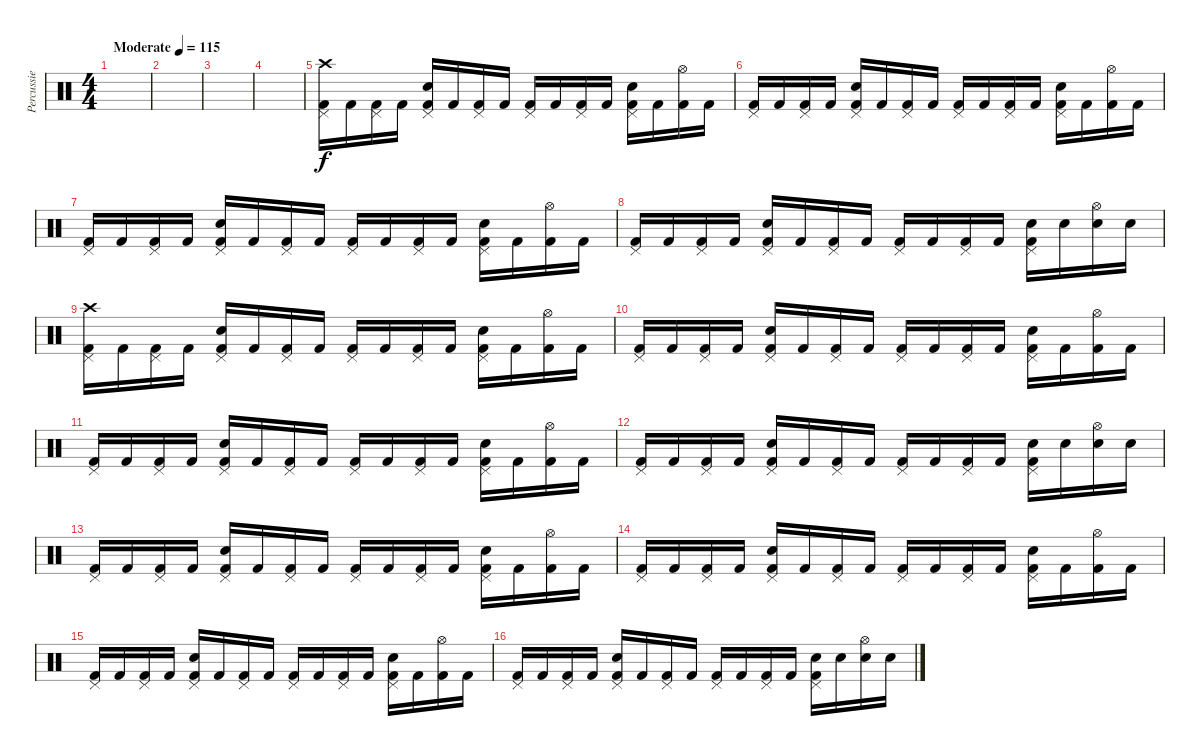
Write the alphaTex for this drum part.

\track ("Percussie" "Percussie") {instrument percussion}
\staff {score}
\articulation defaults
\ts (4 4)
\tempo (115 "Moderate")
\clef neutral
\ks c
|
|
|
|
("Crash high (hit)" "Pedal Hi-Hat (hit)" "Kick (hit) 2").16 "Kick (hit) 2".16 ("Pedal Hi-Hat (hit)" "Kick (hit) 2").16 "Kick (hit) 2".16 ("Pedal Hi-Hat (hit)" "Kick (hit) 2" "Snare (hit) 2").16 "Kick (hit) 2".16 ("Pedal Hi-Hat (hit)" "Kick (hit) 2").16 "Kick (hit) 2".16 ("Pedal Hi-Hat (hit)" "Kick (hit) 2").16 "Kick (hit) 2".16 ("Pedal Hi-Hat (hit)" "Kick (hit) 2").16 "Kick (hit) 2".16 ("Pedal Hi-Hat (hit)" "Kick (hit) 2" "Snare (hit) 2").16 "Kick (hit) 2".16 ("Hi-Hat (open)" "Kick (hit) 2").16 "Kick (hit) 2".16 |
("Pedal Hi-Hat (hit)" "Kick (hit) 2").16 "Kick (hit) 2".16 ("Pedal Hi-Hat (hit)" "Kick (hit) 2").16 "Kick (hit) 2".16 ("Pedal Hi-Hat (hit)" "Kick (hit) 2" "Snare (hit) 2").16 "Kick (hit) 2".16 ("Pedal Hi-Hat (hit)" "Kick (hit) 2").16 "Kick (hit) 2".16 ("Pedal Hi-Hat (hit)" "Kick (hit) 2").16 "Kick (hit) 2".16 ("Pedal Hi-Hat (hit)" "Kick (hit) 2").16 "Kick (hit) 2".16 ("Pedal Hi-Hat (hit)" "Kick (hit) 2" "Snare (hit) 2").16 "Kick (hit) 2".16 ("Hi-Hat (open)" "Kick (hit) 2").16 "Kick (hit) 2".16 |
("Pedal Hi-Hat (hit)" "Kick (hit) 2").16 "Kick (hit) 2".16 ("Pedal Hi-Hat (hit)" "Kick (hit) 2").16 "Kick (hit) 2".16 ("Pedal Hi-Hat (hit)" "Kick (hit) 2" "Snare (hit) 2").16 "Kick (hit) 2".16 ("Pedal Hi-Hat (hit)" "Kick (hit) 2").16 "Kick (hit) 2".16 ("Pedal Hi-Hat (hit)" "Kick (hit) 2").16 "Kick (hit) 2".16 ("Pedal Hi-Hat (hit)" "Kick (hit) 2").16 "Kick (hit) 2".16 ("Pedal Hi-Hat (hit)" "Kick (hit) 2" "Snare (hit) 2").16 "Kick (hit) 2".16 ("Hi-Hat (open)" "Kick (hit) 2").16 "Kick (hit) 2".16 |
("Pedal Hi-Hat (hit)" "Kick (hit) 2").16 "Kick (hit) 2".16 ("Pedal Hi-Hat (hit)" "Kick (hit) 2").16 "Kick (hit) 2".16 ("Pedal Hi-Hat (hit)" "Kick (hit) 2" "Snare (hit) 2").16 "Kick (hit) 2".16 ("Pedal Hi-Hat (hit)" "Kick (hit) 2").16 "Kick (hit) 2".16 ("Pedal Hi-Hat (hit)" "Kick (hit) 2").16 "Kick (hit) 2".16 ("Pedal Hi-Hat (hit)" "Kick (hit) 2").16 "Kick (hit) 2".16 ("Pedal Hi-Hat (hit)" "Kick (hit) 2" "Snare (hit) 2").16 "Snare (hit) 2".16 ("Hi-Hat (open)" "Snare (hit) 2").16 "Snare (hit) 2".16 |
("Crash high (hit)" "Pedal Hi-Hat (hit)" "Kick (hit) 2").16 "Kick (hit) 2".16 ("Pedal Hi-Hat (hit)" "Kick (hit) 2").16 "Kick (hit) 2".16 ("Pedal Hi-Hat (hit)" "Kick (hit) 2" "Snare (hit) 2").16 "Kick (hit) 2".16 ("Pedal Hi-Hat (hit)" "Kick (hit) 2").16 "Kick (hit) 2".16 ("Pedal Hi-Hat (hit)" "Kick (hit) 2").16 "Kick (hit) 2".16 ("Pedal Hi-Hat (hit)" "Kick (hit) 2").16 "Kick (hit) 2".16 ("Pedal Hi-Hat (hit)" "Kick (hit) 2" "Snare (hit) 2").16 "Kick (hit) 2".16 ("Hi-Hat (open)" "Kick (hit) 2").16 "Kick (hit) 2".16 |
("Pedal Hi-Hat (hit)" "Kick (hit) 2").16 "Kick (hit) 2".16 ("Pedal Hi-Hat (hit)" "Kick (hit) 2").16 "Kick (hit) 2".16 ("Pedal Hi-Hat (hit)" "Kick (hit) 2" "Snare (hit) 2").16 "Kick (hit) 2".16 ("Pedal Hi-Hat (hit)" "Kick (hit) 2").16 "Kick (hit) 2".16 ("Pedal Hi-Hat (hit)" "Kick (hit) 2").16 "Kick (hit) 2".16 ("Pedal Hi-Hat (hit)" "Kick (hit) 2").16 "Kick (hit) 2".16 ("Pedal Hi-Hat (hit)" "Kick (hit) 2" "Snare (hit) 2").16 "Kick (hit) 2".16 ("Hi-Hat (open)" "Kick (hit) 2").16 "Kick (hit) 2".16 |
("Pedal Hi-Hat (hit)" "Kick (hit) 2").16 "Kick (hit) 2".16 ("Pedal Hi-Hat (hit)" "Kick (hit) 2").16 "Kick (hit) 2".16 ("Pedal Hi-Hat (hit)" "Kick (hit) 2" "Snare (hit) 2").16 "Kick (hit) 2".16 ("Pedal Hi-Hat (hit)" "Kick (hit) 2").16 "Kick (hit) 2".16 ("Pedal Hi-Hat (hit)" "Kick (hit) 2").16 "Kick (hit) 2".16 ("Pedal Hi-Hat (hit)" "Kick (hit) 2").16 "Kick (hit) 2".16 ("Pedal Hi-Hat (hit)" "Kick (hit) 2" "Snare (hit) 2").16 "Kick (hit) 2".16 ("Hi-Hat (open)" "Kick (hit) 2").16 "Kick (hit) 2".16 |
("Pedal Hi-Hat (hit)" "Kick (hit) 2").16 "Kick (hit) 2".16 ("Pedal Hi-Hat (hit)" "Kick (hit) 2").16 "Kick (hit) 2".16 ("Pedal Hi-Hat (hit)" "Kick (hit) 2" "Snare (hit) 2").16 "Kick (hit) 2".16 ("Pedal Hi-Hat (hit)" "Kick (hit) 2").16 "Kick (hit) 2".16 ("Pedal Hi-Hat (hit)" "Kick (hit) 2").16 "Kick (hit) 2".16 ("Pedal Hi-Hat (hit)" "Kick (hit) 2").16 "Kick (hit) 2".16 ("Pedal Hi-Hat (hit)" "Kick (hit) 2" "Snare (hit) 2").16 "Snare (hit) 2".16 ("Hi-Hat (open)" "Snare (hit) 2").16 "Snare (hit) 2".16 |
("Pedal Hi-Hat (hit)" "Kick (hit) 2").16 "Kick (hit) 2".16 ("Pedal Hi-Hat (hit)" "Kick (hit) 2").16 "Kick (hit) 2".16 ("Pedal Hi-Hat (hit)" "Kick (hit) 2" "Snare (hit) 2").16 "Kick (hit) 2".16 ("Pedal Hi-Hat (hit)" "Kick (hit) 2").16 "Kick (hit) 2".16 ("Pedal Hi-Hat (hit)" "Kick (hit) 2").16 "Kick (hit) 2".16 ("Pedal Hi-Hat (hit)" "Kick (hit) 2").16 "Kick (hit) 2".16 ("Pedal Hi-Hat (hit)" "Kick (hit) 2" "Snare (hit) 2").16 "Kick (hit) 2".16 ("Hi-Hat (open)" "Kick (hit) 2").16 "Kick (hit) 2".16 |
("Pedal Hi-Hat (hit)" "Kick (hit) 2").16 "Kick (hit) 2".16 ("Pedal Hi-Hat (hit)" "Kick (hit) 2").16 "Kick (hit) 2".16 ("Pedal Hi-Hat (hit)" "Kick (hit) 2" "Snare (hit) 2").16 "Kick (hit) 2".16 ("Pedal Hi-Hat (hit)" "Kick (hit) 2").16 "Kick (hit) 2".16 ("Pedal Hi-Hat (hit)" "Kick (hit) 2").16 "Kick (hit) 2".16 ("Pedal Hi-Hat (hit)" "Kick (hit) 2").16 "Kick (hit) 2".16 ("Pedal Hi-Hat (hit)" "Kick (hit) 2" "Snare (hit) 2").16 "Kick (hit) 2".16 ("Hi-Hat (open)" "Kick (hit) 2").16 "Kick (hit) 2".16 |
("Pedal Hi-Hat (hit)" "Kick (hit) 2").16 "Kick (hit) 2".16 ("Pedal Hi-Hat (hit)" "Kick (hit) 2").16 "Kick (hit) 2".16 ("Pedal Hi-Hat (hit)" "Kick (hit) 2" "Snare (hit) 2").16 "Kick (hit) 2".16 ("Pedal Hi-Hat (hit)" "Kick (hit) 2").16 "Kick (hit) 2".16 ("Pedal Hi-Hat (hit)" "Kick (hit) 2").16 "Kick (hit) 2".16 ("Pedal Hi-Hat (hit)" "Kick (hit) 2").16 "Kick (hit) 2".16 ("Pedal Hi-Hat (hit)" "Kick (hit) 2" "Snare (hit) 2").16 "Kick (hit) 2".16 ("Hi-Hat (open)" "Kick (hit) 2").16 "Kick (hit) 2".16 |
("Pedal Hi-Hat (hit)" "Kick (hit) 2").16 "Kick (hit) 2".16 ("Pedal Hi-Hat (hit)" "Kick (hit) 2").16 "Kick (hit) 2".16 ("Pedal Hi-Hat (hit)" "Kick (hit) 2" "Snare (hit) 2").16 "Kick (hit) 2".16 ("Pedal Hi-Hat (hit)" "Kick (hit) 2").16 "Kick (hit) 2".16 ("Pedal Hi-Hat (hit)" "Kick (hit) 2").16 "Kick (hit) 2".16 ("Pedal Hi-Hat (hit)" "Kick (hit) 2").16 "Kick (hit) 2".16 ("Pedal Hi-Hat (hit)" "Kick (hit) 2" "Snare (hit) 2").16 "Snare (hit) 2".16 ("Hi-Hat (open)" "Snare (hit) 2").16 "Snare (hit) 2".16
